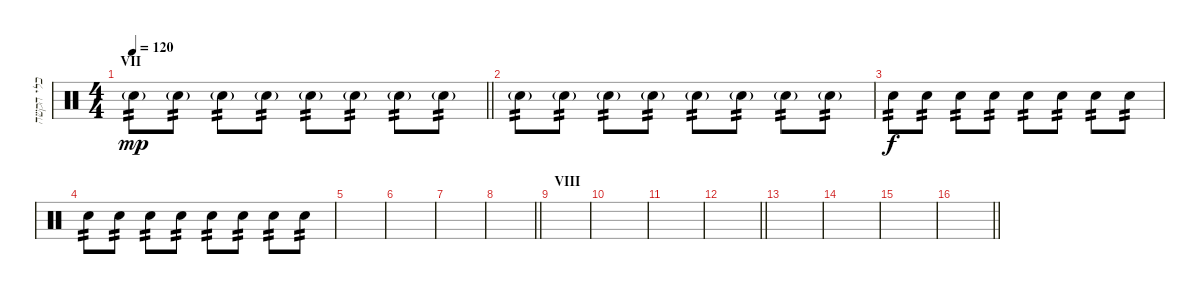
\track ("כלי הקשה" "כלי הקשה") {instrument percussion}
\staff {score}
\articulation defaults
\ts (4 4)
\section ("" "VII")
\tempo 120
\clef neutral
\barLineRight lightlight
\ks c "Electric Snare (hit)"{g}.8{tp 2 dy mp} "Electric Snare (hit)"{g}.8{tp 2} "Electric Snare (hit)"{g}.8{tp 2} "Electric Snare (hit)"{g}.8{tp 2} "Electric Snare (hit)"{g}.8{tp 2} "Electric Snare (hit)"{g}.8{tp 2} "Electric Snare (hit)"{g}.8{tp 2} "Electric Snare (hit)"{g}.8{tp 2}
|
"Electric Snare (hit)"{g}.8{tp 2} "Electric Snare (hit)"{g}.8{tp 2} "Electric Snare (hit)"{g}.8{tp 2} "Electric Snare (hit)"{g}.8{tp 2} "Electric Snare (hit)"{g}.8{tp 2} "Electric Snare (hit)"{g}.8{tp 2} "Electric Snare (hit)"{g}.8{tp 2} "Electric Snare (hit)"{g}.8{tp 2} |
"Electric Snare (hit)".8{tp 2 dy f} "Electric Snare (hit)".8{tp 2} "Electric Snare (hit)".8{tp 2} "Electric Snare (hit)".8{tp 2} "Electric Snare (hit)".8{tp 2} "Electric Snare (hit)".8{tp 2} "Electric Snare (hit)".8{tp 2} "Electric Snare (hit)".8{tp 2} |
"Electric Snare (hit)".8{tp 2} "Electric Snare (hit)".8{tp 2} "Electric Snare (hit)".8{tp 2} "Electric Snare (hit)".8{tp 2} "Electric Snare (hit)".8{tp 2} "Electric Snare (hit)".8{tp 2} "Electric Snare (hit)".8{tp 2} "Electric Snare (hit)".8{tp 2} |
|
|
|
\barLineRight lightlight
|
\section ("" "VIII")
|
|
|
\barLineRight lightlight
|
|
|
|
\barLineRight lightlight
